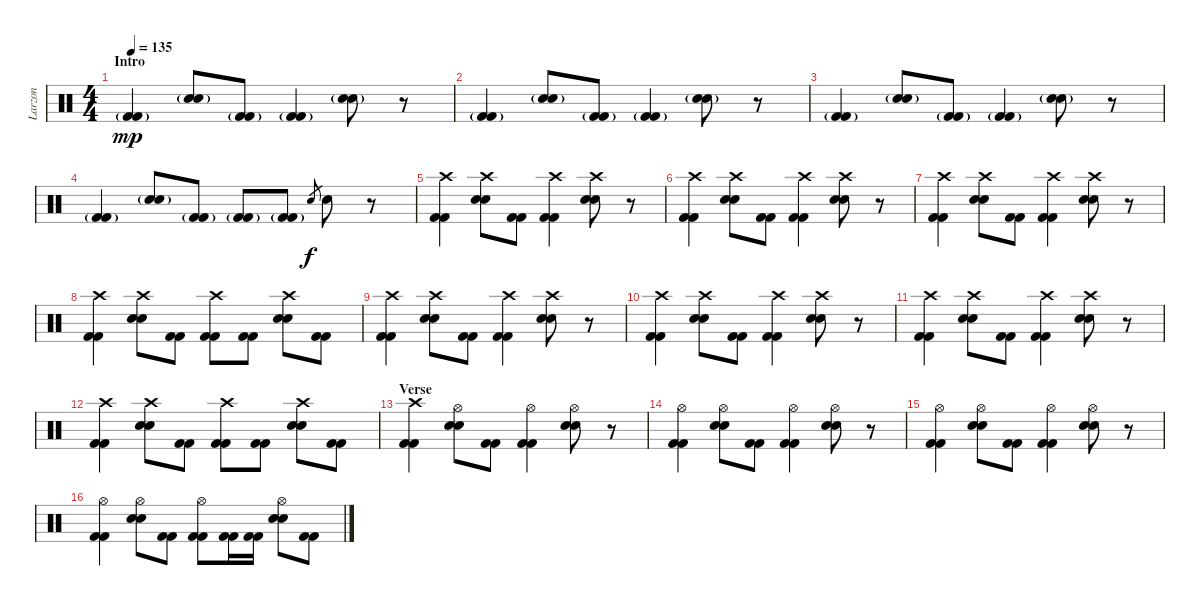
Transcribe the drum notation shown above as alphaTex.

\track ("Larzon" "Larzon") {instrument percussion}
\staff {score}
\articulation defaults
\ts (4 4)
\section ("" "Intro")
\tempo 135
\clef neutral
\ks c
("Kick (hit) 2"{g} "Kick (hit) 2"{g}).4{dy mp} ("Electric Snare (hit)"{g} "Electric Snare (hit)"{g}).8 ("Kick (hit) 2"{g} "Kick (hit) 2"{g}).8 ("Kick (hit) 2"{g} "Kick (hit) 2"{g}).4 ("Electric Snare (hit)"{g} "Electric Snare (hit)"{g}).8 r.8 |
("Kick (hit) 2"{g} "Kick (hit) 2"{g}).4 ("Electric Snare (hit)"{g} "Electric Snare (hit)"{g}).8 ("Kick (hit) 2"{g} "Kick (hit) 2"{g}).8 ("Kick (hit) 2"{g} "Kick (hit) 2"{g}).4 ("Electric Snare (hit)"{g} "Electric Snare (hit)"{g}).8 r.8 |
("Kick (hit) 2"{g} "Kick (hit) 2"{g}).4 ("Electric Snare (hit)"{g} "Electric Snare (hit)"{g}).8 ("Kick (hit) 2"{g} "Kick (hit) 2"{g}).8 ("Kick (hit) 2"{g} "Kick (hit) 2"{g}).4 ("Electric Snare (hit)"{g} "Electric Snare (hit)"{g}).8 r.8 |
("Kick (hit) 2"{g} "Kick (hit) 2"{g}).4 ("Electric Snare (hit)"{g} "Electric Snare (hit)"{g}).8 ("Kick (hit) 2"{g} "Kick (hit) 2"{g}).8 ("Kick (hit) 2"{g} "Kick (hit) 2"{g}).8 ("Kick (hit) 2"{g} "Kick (hit) 2"{g}).8 "Electric Snare (hit)".8{gr dy f} "Electric Snare (hit)".8 r.8 |
("Crash high (hit)" "Kick (hit) 2" "Kick (hit) 2").4 ("Crash high (hit)" "Electric Snare (hit)" "Electric Snare (hit)").8 ("Kick (hit) 2" "Kick (hit) 2").8 ("Crash high (hit)" "Kick (hit) 2" "Kick (hit) 2").4 ("Crash high (hit)" "Electric Snare (hit)" "Electric Snare (hit)").8 r.8 |
("Crash high (hit)" "Kick (hit) 2" "Kick (hit) 2").4 ("Crash high (hit)" "Electric Snare (hit)" "Electric Snare (hit)").8 ("Kick (hit) 2" "Kick (hit) 2").8 ("Crash high (hit)" "Kick (hit) 2" "Kick (hit) 2").4 ("Crash high (hit)" "Electric Snare (hit)" "Electric Snare (hit)").8 r.8 |
("Crash high (hit)" "Kick (hit) 2" "Kick (hit) 2").4 ("Crash high (hit)" "Electric Snare (hit)" "Electric Snare (hit)").8 ("Kick (hit) 2" "Kick (hit) 2").8 ("Crash high (hit)" "Kick (hit) 2" "Kick (hit) 2").4 ("Crash high (hit)" "Electric Snare (hit)" "Electric Snare (hit)").8 r.8 |
("Crash high (hit)" "Kick (hit) 2" "Kick (hit) 2").4 ("Crash high (hit)" "Electric Snare (hit)" "Electric Snare (hit)").8 ("Kick (hit) 2" "Kick (hit) 2").8 ("Crash high (hit)" "Kick (hit) 2" "Kick (hit) 2").8 ("Kick (hit) 2" "Kick (hit) 2").8 ("Crash high (hit)" "Electric Snare (hit)" "Electric Snare (hit)").8 ("Kick (hit) 2" "Kick (hit) 2").8 |
("Crash high (hit)" "Kick (hit) 2" "Kick (hit) 2").4 ("Crash high (hit)" "Electric Snare (hit)" "Electric Snare (hit)").8 ("Kick (hit) 2" "Kick (hit) 2").8 ("Crash high (hit)" "Kick (hit) 2" "Kick (hit) 2").4 ("Crash high (hit)" "Electric Snare (hit)" "Electric Snare (hit)").8 r.8 |
("Crash high (hit)" "Kick (hit) 2" "Kick (hit) 2").4 ("Crash high (hit)" "Electric Snare (hit)" "Electric Snare (hit)").8 ("Kick (hit) 2" "Kick (hit) 2").8 ("Crash high (hit)" "Kick (hit) 2" "Kick (hit) 2").4 ("Crash high (hit)" "Electric Snare (hit)" "Electric Snare (hit)").8 r.8 |
("Crash high (hit)" "Kick (hit) 2" "Kick (hit) 2").4 ("Crash high (hit)" "Electric Snare (hit)" "Electric Snare (hit)").8 ("Kick (hit) 2" "Kick (hit) 2").8 ("Crash high (hit)" "Kick (hit) 2" "Kick (hit) 2").4 ("Crash high (hit)" "Electric Snare (hit)" "Electric Snare (hit)").8 r.8 |
("Crash high (hit)" "Kick (hit) 2" "Kick (hit) 2").4 ("Crash high (hit)" "Electric Snare (hit)" "Electric Snare (hit)").8 ("Kick (hit) 2" "Kick (hit) 2").8 ("Crash high (hit)" "Kick (hit) 2" "Kick (hit) 2").8 ("Kick (hit) 2" "Kick (hit) 2").8 ("Crash high (hit)" "Electric Snare (hit)" "Electric Snare (hit)").8 ("Kick (hit) 2" "Kick (hit) 2").8 |
\section ("" "Verse")
("Crash high (hit)" "Kick (hit) 2" "Kick (hit) 2").4 ("Hi-Hat (open)" "Electric Snare (hit)" "Electric Snare (hit)").8 ("Kick (hit) 2" "Kick (hit) 2").8 ("Hi-Hat (open)" "Kick (hit) 2" "Kick (hit) 2").4 ("Hi-Hat (open)" "Electric Snare (hit)" "Electric Snare (hit)").8 r.8 |
("Hi-Hat (open)" "Kick (hit) 2" "Kick (hit) 2").4 ("Hi-Hat (open)" "Electric Snare (hit)" "Electric Snare (hit)").8 ("Kick (hit) 2" "Kick (hit) 2").8 ("Hi-Hat (open)" "Kick (hit) 2" "Kick (hit) 2").4 ("Hi-Hat (open)" "Electric Snare (hit)" "Electric Snare (hit)").8 r.8 |
("Hi-Hat (open)" "Kick (hit) 2" "Kick (hit) 2").4 ("Hi-Hat (open)" "Electric Snare (hit)" "Electric Snare (hit)").8 ("Kick (hit) 2" "Kick (hit) 2").8 ("Hi-Hat (open)" "Kick (hit) 2" "Kick (hit) 2").4 ("Hi-Hat (open)" "Electric Snare (hit)" "Electric Snare (hit)").8 r.8 |
("Hi-Hat (open)" "Kick (hit) 2" "Kick (hit) 2").4 ("Hi-Hat (open)" "Electric Snare (hit)" "Electric Snare (hit)").8 ("Kick (hit) 2" "Kick (hit) 2").8 ("Hi-Hat (open)" "Kick (hit) 2" "Kick (hit) 2").8 ("Kick (hit) 2" "Kick (hit) 2").16 ("Kick (hit) 2" "Kick (hit) 2").16 ("Hi-Hat (open)" "Electric Snare (hit)" "Electric Snare (hit)").8 ("Kick (hit) 2" "Kick (hit) 2").8
